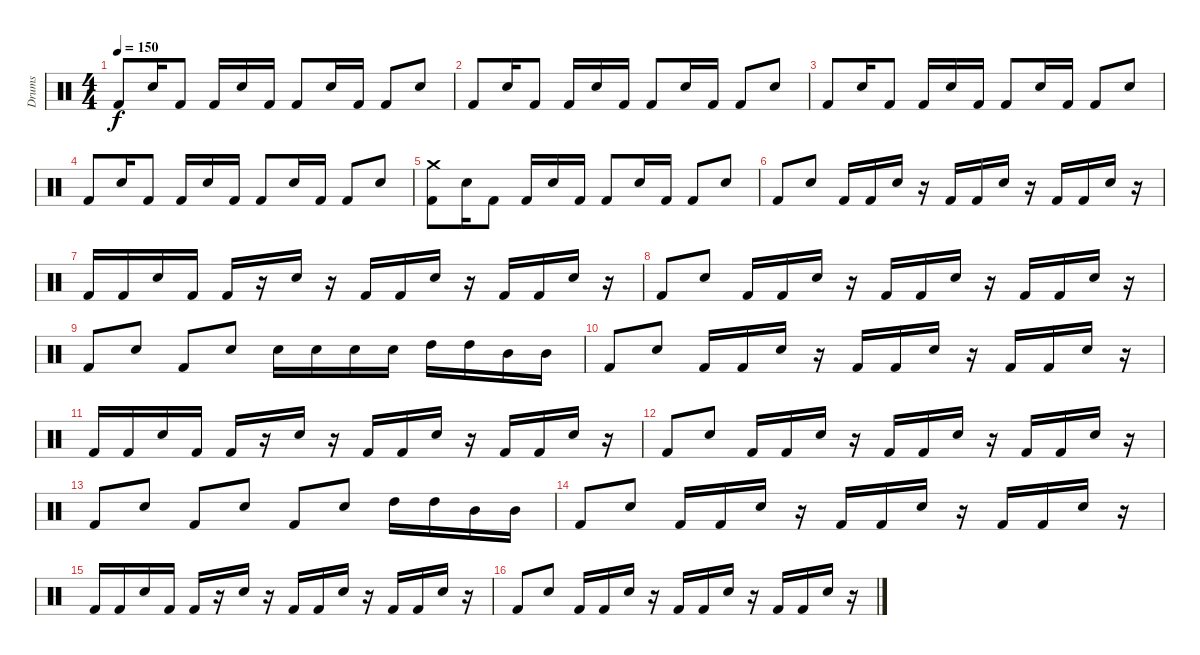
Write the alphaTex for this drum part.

\track ("Drums" "Drums") {instrument percussion}
\staff {score}
\articulation defaults
\ts (4 4)
\tempo 150
\clef neutral
\ks c "Kick (hit) 2".8{dy f} "Snare (hit) 2".16 "Kick (hit) 2".8 "Kick (hit) 2".16 "Snare (hit) 2".16 "Kick (hit) 2".16 "Kick (hit) 2".8 "Snare (hit) 2".16 "Kick (hit) 2".16 "Kick (hit) 2".8 "Snare (hit) 2".8
|
"Kick (hit) 2".8 "Snare (hit) 2".16 "Kick (hit) 2".8 "Kick (hit) 2".16 "Snare (hit) 2".16 "Kick (hit) 2".16 "Kick (hit) 2".8 "Snare (hit) 2".16 "Kick (hit) 2".16 "Kick (hit) 2".8 "Snare (hit) 2".8 |
"Kick (hit) 2".8 "Snare (hit) 2".16 "Kick (hit) 2".8 "Kick (hit) 2".16 "Snare (hit) 2".16 "Kick (hit) 2".16 "Kick (hit) 2".8 "Snare (hit) 2".16 "Kick (hit) 2".16 "Kick (hit) 2".8 "Snare (hit) 2".8 |
"Kick (hit) 2".8 "Snare (hit) 2".16 "Kick (hit) 2".8 "Kick (hit) 2".16 "Snare (hit) 2".16 "Kick (hit) 2".16 "Kick (hit) 2".8 "Snare (hit) 2".16 "Kick (hit) 2".16 "Kick (hit) 2".8 "Snare (hit) 2".8 |
("Crash medium (hit)" "Kick (hit) 2").8 "Snare (hit) 2".16 "Kick (hit) 2".8 "Kick (hit) 2".16 "Snare (hit) 2".16 "Kick (hit) 2".16 "Kick (hit) 2".8 "Snare (hit) 2".16 "Kick (hit) 2".16 "Kick (hit) 2".8 "Snare (hit) 2".8 |
"Kick (hit) 2".8 "Snare (hit) 2".8 "Kick (hit) 2".16 "Kick (hit) 2".16 "Snare (hit) 2".16 r.16 "Kick (hit) 2".16 "Kick (hit) 2".16 "Snare (hit) 2".16 r.16 "Kick (hit) 2".16 "Kick (hit) 2".16 "Snare (hit) 2".16 r.16 |
"Kick (hit) 2".16 "Kick (hit) 2".16 "Snare (hit) 2".16 "Kick (hit) 2".16 "Kick (hit) 2".16 r.16 "Snare (hit) 2".16 r.16 "Kick (hit) 2".16 "Kick (hit) 2".16 "Snare (hit) 2".16 r.16 "Kick (hit) 2".16 "Kick (hit) 2".16 "Snare (hit) 2".16 r.16 |
"Kick (hit) 2".8 "Snare (hit) 2".8 "Kick (hit) 2".16 "Kick (hit) 2".16 "Snare (hit) 2".16 r.16 "Kick (hit) 2".16 "Kick (hit) 2".16 "Snare (hit) 2".16 r.16 "Kick (hit) 2".16 "Kick (hit) 2".16 "Snare (hit) 2".16 r.16 |
"Kick (hit) 2".8 "Snare (hit) 2".8 "Kick (hit) 2".8 "Snare (hit) 2".8 "Snare (hit) 2".16 "Snare (hit) 2".16 "Snare (hit) 2".16 "Snare (hit) 2".16 "High Tom (hit)".16 "High Tom (hit)".16 "Mid Tom (hit)".16 "Mid Tom (hit)".16 |
"Kick (hit) 2".8 "Snare (hit) 2".8 "Kick (hit) 2".16 "Kick (hit) 2".16 "Snare (hit) 2".16 r.16 "Kick (hit) 2".16 "Kick (hit) 2".16 "Snare (hit) 2".16 r.16 "Kick (hit) 2".16 "Kick (hit) 2".16 "Snare (hit) 2".16 r.16 |
"Kick (hit) 2".16 "Kick (hit) 2".16 "Snare (hit) 2".16 "Kick (hit) 2".16 "Kick (hit) 2".16 r.16 "Snare (hit) 2".16 r.16 "Kick (hit) 2".16 "Kick (hit) 2".16 "Snare (hit) 2".16 r.16 "Kick (hit) 2".16 "Kick (hit) 2".16 "Snare (hit) 2".16 r.16 |
"Kick (hit) 2".8 "Snare (hit) 2".8 "Kick (hit) 2".16 "Kick (hit) 2".16 "Snare (hit) 2".16 r.16 "Kick (hit) 2".16 "Kick (hit) 2".16 "Snare (hit) 2".16 r.16 "Kick (hit) 2".16 "Kick (hit) 2".16 "Snare (hit) 2".16 r.16 |
"Kick (hit) 2".8 "Snare (hit) 2".8 "Kick (hit) 2".8 "Snare (hit) 2".8 "Kick (hit) 2".8 "Snare (hit) 2".8 "High Tom (hit)".16 "High Tom (hit)".16 "Mid Tom (hit)".16 "Mid Tom (hit)".16 |
"Kick (hit) 2".8 "Snare (hit) 2".8 "Kick (hit) 2".16 "Kick (hit) 2".16 "Snare (hit) 2".16 r.16 "Kick (hit) 2".16 "Kick (hit) 2".16 "Snare (hit) 2".16 r.16 "Kick (hit) 2".16 "Kick (hit) 2".16 "Snare (hit) 2".16 r.16 |
"Kick (hit) 2".16 "Kick (hit) 2".16 "Snare (hit) 2".16 "Kick (hit) 2".16 "Kick (hit) 2".16 r.16 "Snare (hit) 2".16 r.16 "Kick (hit) 2".16 "Kick (hit) 2".16 "Snare (hit) 2".16 r.16 "Kick (hit) 2".16 "Kick (hit) 2".16 "Snare (hit) 2".16 r.16 |
"Kick (hit) 2".8 "Snare (hit) 2".8 "Kick (hit) 2".16 "Kick (hit) 2".16 "Snare (hit) 2".16 r.16 "Kick (hit) 2".16 "Kick (hit) 2".16 "Snare (hit) 2".16 r.16 "Kick (hit) 2".16 "Kick (hit) 2".16 "Snare (hit) 2".16 r.16
